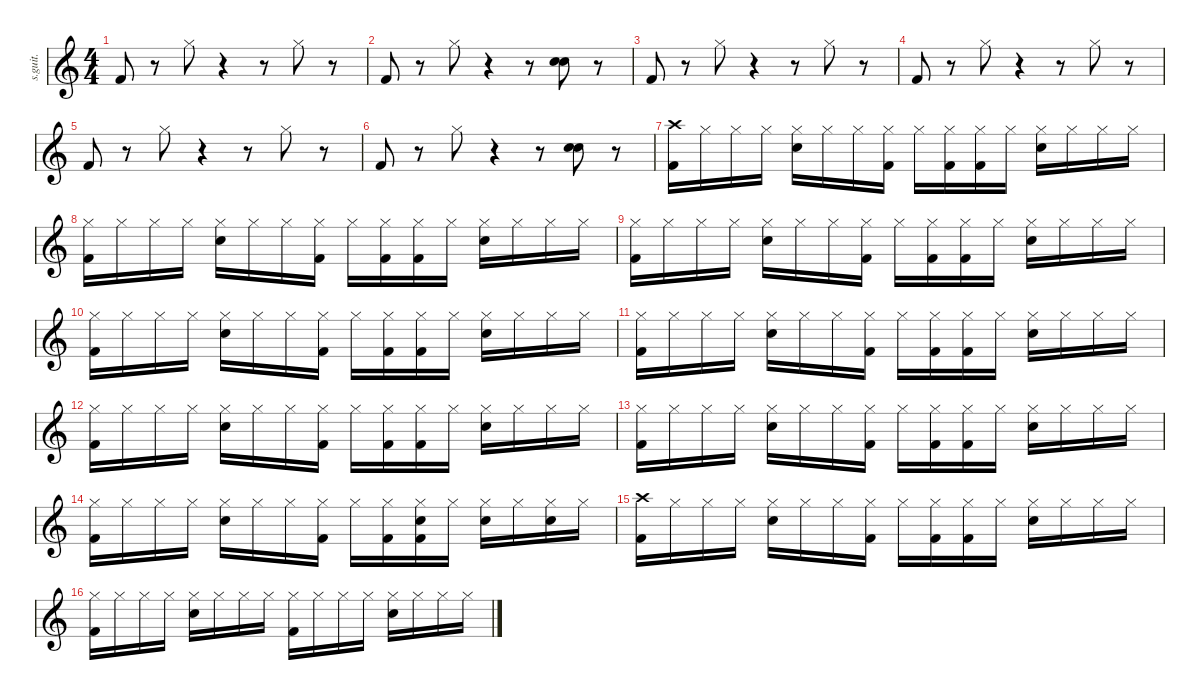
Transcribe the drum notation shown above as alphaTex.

\defaultSystemsLayout 4
\hideDynamics
\bracketExtendMode nobrackets
\track ("Drums" "s.guit.") {instrument percussion}
\staff {score}
\articulation defaults
\ts (4 4)
\tempo (100 hide)
\clef g2
\ks c "Kick (hit) 2".8{dy f}
r.8 "Hi-Hat (closed)".8 r.4 r.8 "Hi-Hat (closed)".8 r.8 |
"Kick (hit) 2".8 r.8 "Hi-Hat (closed)".8 r.4 r.8 ("Electric Snare (hit)" "Snare (hit) 2").8 r.8 |
"Kick (hit) 2".8 r.8 "Hi-Hat (closed)".8 r.4 r.8 "Hi-Hat (closed)".8 r.8 |
"Kick (hit) 2".8 r.8 "Hi-Hat (closed)".8 r.4 r.8 "Hi-Hat (closed)".8 r.8 |
"Kick (hit) 2".8 r.8 "Hi-Hat (closed)".8 r.4 r.8 "Hi-Hat (closed)".8 r.8 |
"Kick (hit) 2".8 r.8 "Hi-Hat (closed)".8 r.4 r.8 ("Electric Snare (hit)" "Snare (hit) 2").8 r.8 |
("Crash high (hit)" "Kick (hit) 2").16 "Hi-Hat (closed)".16 "Hi-Hat (closed)".16 "Hi-Hat (closed)".16 ("Hi-Hat (closed)" "Electric Snare (hit)").16 "Hi-Hat (closed)".16 "Hi-Hat (closed)".16 ("Hi-Hat (closed)" "Kick (hit) 2").16 "Hi-Hat (closed)".16 ("Hi-Hat (closed)" "Kick (hit) 2").16 ("Hi-Hat (closed)" "Kick (hit) 2").16 "Hi-Hat (closed)".16 ("Hi-Hat (closed)" "Electric Snare (hit)").16 "Hi-Hat (closed)".16 "Hi-Hat (closed)".16 "Hi-Hat (closed)".16 |
("Hi-Hat (closed)" "Kick (hit) 2").16 "Hi-Hat (closed)".16 "Hi-Hat (closed)".16 "Hi-Hat (closed)".16 ("Hi-Hat (closed)" "Electric Snare (hit)").16 "Hi-Hat (closed)".16 "Hi-Hat (closed)".16 ("Hi-Hat (closed)" "Kick (hit) 2").16 "Hi-Hat (closed)".16 ("Hi-Hat (closed)" "Kick (hit) 2").16 ("Hi-Hat (closed)" "Kick (hit) 2").16 "Hi-Hat (closed)".16 ("Hi-Hat (closed)" "Electric Snare (hit)").16 "Hi-Hat (closed)".16 "Hi-Hat (closed)".16 "Hi-Hat (closed)".16 |
("Hi-Hat (closed)" "Kick (hit) 2").16 "Hi-Hat (closed)".16 "Hi-Hat (closed)".16 "Hi-Hat (closed)".16 ("Hi-Hat (closed)" "Electric Snare (hit)").16 "Hi-Hat (closed)".16 "Hi-Hat (closed)".16 ("Hi-Hat (closed)" "Kick (hit) 2").16 "Hi-Hat (closed)".16 ("Hi-Hat (closed)" "Kick (hit) 2").16 ("Hi-Hat (closed)" "Kick (hit) 2").16 "Hi-Hat (closed)".16 ("Hi-Hat (closed)" "Electric Snare (hit)").16 "Hi-Hat (closed)".16 "Hi-Hat (closed)".16 "Hi-Hat (closed)".16 |
("Hi-Hat (closed)" "Kick (hit) 2").16 "Hi-Hat (closed)".16 "Hi-Hat (closed)".16 "Hi-Hat (closed)".16 ("Hi-Hat (closed)" "Electric Snare (hit)").16 "Hi-Hat (closed)".16 "Hi-Hat (closed)".16 ("Hi-Hat (closed)" "Kick (hit) 2").16 "Hi-Hat (closed)".16 ("Hi-Hat (closed)" "Kick (hit) 2").16 ("Hi-Hat (closed)" "Kick (hit) 2").16 "Hi-Hat (closed)".16 ("Hi-Hat (closed)" "Electric Snare (hit)").16 "Hi-Hat (closed)".16 "Hi-Hat (closed)".16 "Hi-Hat (closed)".16 |
("Hi-Hat (closed)" "Kick (hit) 2").16 "Hi-Hat (closed)".16 "Hi-Hat (closed)".16 "Hi-Hat (closed)".16 ("Hi-Hat (closed)" "Electric Snare (hit)").16 "Hi-Hat (closed)".16 "Hi-Hat (closed)".16 ("Hi-Hat (closed)" "Kick (hit) 2").16 "Hi-Hat (closed)".16 ("Hi-Hat (closed)" "Kick (hit) 2").16 ("Hi-Hat (closed)" "Kick (hit) 2").16 "Hi-Hat (closed)".16 ("Hi-Hat (closed)" "Electric Snare (hit)").16 "Hi-Hat (closed)".16 "Hi-Hat (closed)".16 "Hi-Hat (closed)".16 |
("Hi-Hat (closed)" "Kick (hit) 2").16 "Hi-Hat (closed)".16 "Hi-Hat (closed)".16 "Hi-Hat (closed)".16 ("Hi-Hat (closed)" "Electric Snare (hit)").16 "Hi-Hat (closed)".16 "Hi-Hat (closed)".16 ("Hi-Hat (closed)" "Kick (hit) 2").16 "Hi-Hat (closed)".16 ("Hi-Hat (closed)" "Kick (hit) 2").16 ("Hi-Hat (closed)" "Kick (hit) 2").16 "Hi-Hat (closed)".16 ("Hi-Hat (closed)" "Electric Snare (hit)").16 "Hi-Hat (closed)".16 "Hi-Hat (closed)".16 "Hi-Hat (closed)".16 |
("Hi-Hat (closed)" "Kick (hit) 2").16 "Hi-Hat (closed)".16 "Hi-Hat (closed)".16 "Hi-Hat (closed)".16 ("Hi-Hat (closed)" "Electric Snare (hit)").16 "Hi-Hat (closed)".16 "Hi-Hat (closed)".16 ("Hi-Hat (closed)" "Kick (hit) 2").16 "Hi-Hat (closed)".16 ("Hi-Hat (closed)" "Kick (hit) 2").16 ("Hi-Hat (closed)" "Kick (hit) 2").16 "Hi-Hat (closed)".16 ("Hi-Hat (closed)" "Electric Snare (hit)").16 "Hi-Hat (closed)".16 "Hi-Hat (closed)".16 "Hi-Hat (closed)".16 |
("Hi-Hat (closed)" "Kick (hit) 2").16 "Hi-Hat (closed)".16 "Hi-Hat (closed)".16 "Hi-Hat (closed)".16 ("Hi-Hat (closed)" "Electric Snare (hit)").16 "Hi-Hat (closed)".16 "Hi-Hat (closed)".16 ("Hi-Hat (closed)" "Kick (hit) 2").16 "Hi-Hat (closed)".16 ("Hi-Hat (closed)" "Kick (hit) 2").16 ("Electric Snare (hit)" "Hi-Hat (closed)" "Kick (hit) 2").16 "Hi-Hat (closed)".16 ("Hi-Hat (closed)" "Electric Snare (hit)").16 "Hi-Hat (closed)".16 ("Electric Snare (hit)" "Hi-Hat (closed)").16 "Hi-Hat (closed)".16 |
("Crash high (hit)" "Kick (hit) 2").16 "Hi-Hat (closed)".16 "Hi-Hat (closed)".16 "Hi-Hat (closed)".16 ("Hi-Hat (closed)" "Electric Snare (hit)").16 "Hi-Hat (closed)".16 "Hi-Hat (closed)".16 ("Hi-Hat (closed)" "Kick (hit) 2").16 "Hi-Hat (closed)".16 ("Hi-Hat (closed)" "Kick (hit) 2").16 ("Hi-Hat (closed)" "Kick (hit) 2").16 "Hi-Hat (closed)".16 ("Hi-Hat (closed)" "Electric Snare (hit)").16 "Hi-Hat (closed)".16 "Hi-Hat (closed)".16 "Hi-Hat (closed)".16 |
("Hi-Hat (closed)" "Kick (hit) 2").16 "Hi-Hat (closed)".16 "Hi-Hat (closed)".16 "Hi-Hat (closed)".16 ("Hi-Hat (closed)" "Electric Snare (hit)").16 "Hi-Hat (closed)".16 "Hi-Hat (closed)".16 "Hi-Hat (closed)".16 ("Kick (hit) 2" "Hi-Hat (closed)").16 "Hi-Hat (closed)".16 "Hi-Hat (closed)".16 "Hi-Hat (closed)".16 ("Hi-Hat (closed)" "Electric Snare (hit)").16 "Hi-Hat (closed)".16 "Hi-Hat (closed)".16 "Hi-Hat (closed)".16
